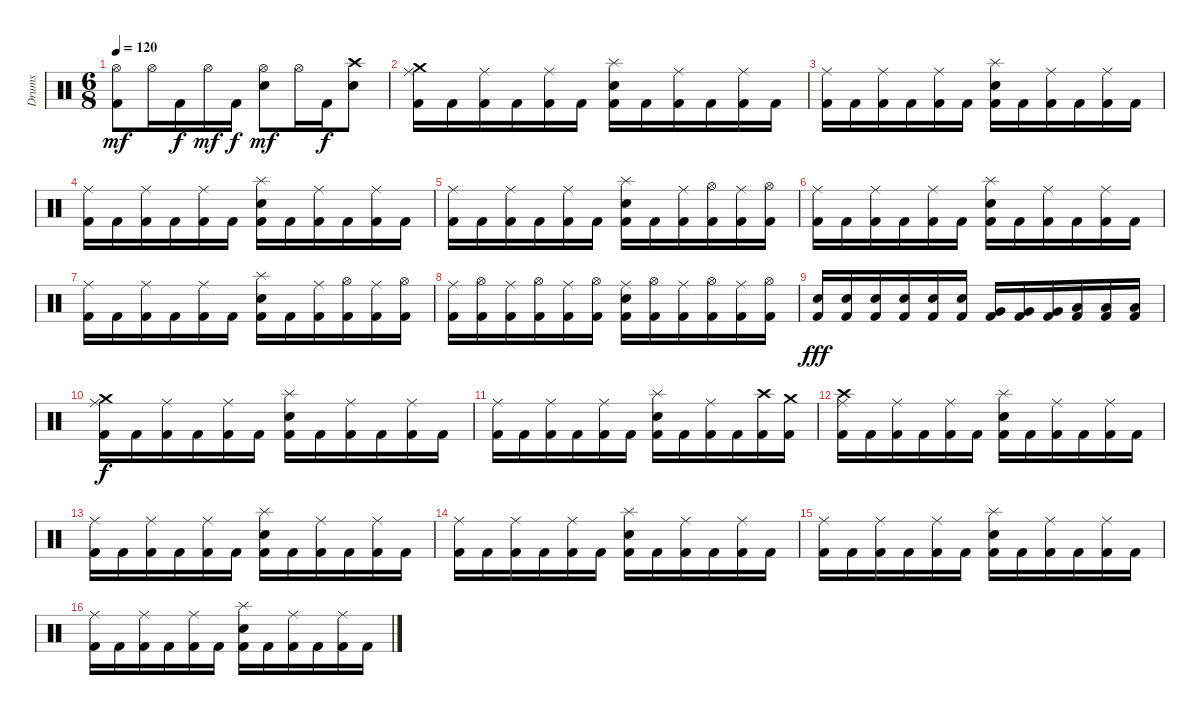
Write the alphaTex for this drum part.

\track ("Drums" "Drums") {instrument percussion}
\staff {score}
\articulation defaults
\ts (6 8)
\tempo 120
\clef neutral
\ks c
("Kick (hit) 2" "Hi-Hat (open)").8{dy mf} "Hi-Hat (open)".16 "Kick (hit) 2".16{dy f} "Hi-Hat (open)".16{dy mf} "Kick (hit) 2".16{dy f} ("Snare (hit) 2" "Hi-Hat (open)").8{dy mf} "Hi-Hat (open)".16 "Kick (hit) 2".16{dy f} ("Snare (hit) 2" "Crash high (hit)").8 |
("Kick (hit) 2" "Ride (middle)" "Crash medium (hit)").16 "Kick (hit) 2".16 ("Kick (hit) 2" "Ride (middle)").16 "Kick (hit) 2".16 ("Kick (hit) 2" "Ride (middle)").16 "Kick (hit) 2".16 ("Kick (hit) 2" "Snare (hit) 2" "Splash (hit)").16 "Kick (hit) 2".16 ("Kick (hit) 2" "Ride (middle)").16 "Kick (hit) 2".16 ("Kick (hit) 2" "Ride (middle)").16 "Kick (hit) 2".16 |
("Kick (hit) 2" "Ride (middle)").16 "Kick (hit) 2".16 ("Kick (hit) 2" "Ride (middle)").16 "Kick (hit) 2".16 ("Kick (hit) 2" "Ride (middle)").16 "Kick (hit) 2".16 ("Kick (hit) 2" "Snare (hit) 2" "Splash (hit)").16 "Kick (hit) 2".16 ("Kick (hit) 2" "Ride (middle)").16 "Kick (hit) 2".16 ("Kick (hit) 2" "Ride (middle)").16 "Kick (hit) 2".16 |
("Kick (hit) 2" "Ride (middle)").16 "Kick (hit) 2".16 ("Kick (hit) 2" "Ride (middle)").16 "Kick (hit) 2".16 ("Kick (hit) 2" "Ride (middle)").16 "Kick (hit) 2".16 ("Kick (hit) 2" "Snare (hit) 2" "Splash (hit)").16 "Kick (hit) 2".16 ("Kick (hit) 2" "Ride (middle)").16 "Kick (hit) 2".16 ("Kick (hit) 2" "Ride (middle)").16 "Kick (hit) 2".16 |
("Kick (hit) 2" "Ride (middle)").16 "Kick (hit) 2".16 ("Kick (hit) 2" "Ride (middle)").16 "Kick (hit) 2".16 ("Kick (hit) 2" "Ride (middle)").16 "Kick (hit) 2".16 ("Kick (hit) 2" "Snare (hit) 2" "Splash (hit)").16 "Kick (hit) 2".16 ("Kick (hit) 2" "Ride (middle)").16 ("Kick (hit) 2" "Hi-Hat (open)").16 ("Kick (hit) 2" "Ride (middle)").16 ("Kick (hit) 2" "Hi-Hat (open)").16 |
("Kick (hit) 2" "Ride (middle)").16 "Kick (hit) 2".16 ("Kick (hit) 2" "Ride (middle)").16 "Kick (hit) 2".16 ("Kick (hit) 2" "Ride (middle)").16 "Kick (hit) 2".16 ("Kick (hit) 2" "Snare (hit) 2" "Splash (hit)").16 "Kick (hit) 2".16 ("Kick (hit) 2" "Ride (middle)").16 "Kick (hit) 2".16 ("Kick (hit) 2" "Ride (middle)").16 "Kick (hit) 2".16 |
("Kick (hit) 2" "Ride (middle)").16 "Kick (hit) 2".16 ("Kick (hit) 2" "Ride (middle)").16 "Kick (hit) 2".16 ("Kick (hit) 2" "Ride (middle)").16 "Kick (hit) 2".16 ("Kick (hit) 2" "Snare (hit) 2" "Splash (hit)").16 "Kick (hit) 2".16 ("Kick (hit) 2" "Ride (middle)").16 ("Kick (hit) 2" "Hi-Hat (open)").16 ("Kick (hit) 2" "Ride (middle)").16 ("Kick (hit) 2" "Hi-Hat (open)").16 |
("Kick (hit) 2" "Ride (middle)").16 ("Kick (hit) 2" "Hi-Hat (open)").16 ("Kick (hit) 2" "Ride (middle)").16 ("Kick (hit) 2" "Hi-Hat (open)").16 ("Kick (hit) 2" "Ride (middle)").16 ("Kick (hit) 2" "Hi-Hat (open)").16 ("Kick (hit) 2" "Snare (hit) 2" "Ride (middle)").16 ("Kick (hit) 2" "Hi-Hat (open)").16 ("Kick (hit) 2" "Ride (middle)").16 ("Kick (hit) 2" "Hi-Hat (open)").16 ("Kick (hit) 2" "Ride (middle)").16 ("Kick (hit) 2" "Hi-Hat (open)").16 |
("Kick (hit) 2" "Snare (hit) 2").16{dy fff} ("Kick (hit) 2" "Snare (hit) 2").16 ("Kick (hit) 2" "Snare (hit) 2").16 ("Kick (hit) 2" "Snare (hit) 2").16 ("Kick (hit) 2" "Snare (hit) 2").16 ("Kick (hit) 2" "Snare (hit) 2").16 ("Kick (hit) 2" "Very Low Tom (hit)").16 ("Kick (hit) 2" "Very Low Tom (hit)").16 ("Kick (hit) 2" "Very Low Tom (hit)").16 ("Kick (hit) 2" "Low Floor Tom (hit)").16 ("Kick (hit) 2" "Low Floor Tom (hit)").16 ("Kick (hit) 2" "Low Floor Tom (hit)").16 |
("Kick (hit) 2" "Ride (middle)" "Crash medium (hit)").16{dy f} "Kick (hit) 2".16 ("Kick (hit) 2" "Ride (middle)").16 "Kick (hit) 2".16 ("Kick (hit) 2" "Ride (middle)").16 "Kick (hit) 2".16 ("Kick (hit) 2" "Snare (hit) 2" "Splash (hit)").16 "Kick (hit) 2".16 ("Kick (hit) 2" "Ride (middle)").16 "Kick (hit) 2".16 ("Kick (hit) 2" "Ride (middle)").16 "Kick (hit) 2".16 |
("Kick (hit) 2" "Ride (middle)").16 "Kick (hit) 2".16 ("Kick (hit) 2" "Ride (middle)").16 "Kick (hit) 2".16 ("Kick (hit) 2" "Ride (middle)").16 "Kick (hit) 2".16 ("Kick (hit) 2" "Snare (hit) 2" "Splash (hit)").16 "Kick (hit) 2".16 ("Kick (hit) 2" "Ride (middle)").16 "Kick (hit) 2".16 ("Kick (hit) 2" "Crash high (hit)").16 ("Kick (hit) 2" "Crash medium (hit)").16 |
("Kick (hit) 2" "Ride (middle)" "Crash high (hit)").16 "Kick (hit) 2".16 ("Kick (hit) 2" "Ride (middle)").16 "Kick (hit) 2".16 ("Kick (hit) 2" "Ride (middle)").16 "Kick (hit) 2".16 ("Kick (hit) 2" "Snare (hit) 2" "Splash (hit)").16 "Kick (hit) 2".16 ("Kick (hit) 2" "Ride (middle)").16 "Kick (hit) 2".16 ("Kick (hit) 2" "Ride (middle)").16 "Kick (hit) 2".16 |
("Kick (hit) 2" "Ride (middle)").16 "Kick (hit) 2".16 ("Kick (hit) 2" "Ride (middle)").16 "Kick (hit) 2".16 ("Kick (hit) 2" "Ride (middle)").16 "Kick (hit) 2".16 ("Kick (hit) 2" "Snare (hit) 2" "Splash (hit)").16 "Kick (hit) 2".16 ("Kick (hit) 2" "Ride (middle)").16 "Kick (hit) 2".16 ("Kick (hit) 2" "Ride (middle)").16 "Kick (hit) 2".16 |
("Kick (hit) 2" "Ride (middle)").16 "Kick (hit) 2".16 ("Kick (hit) 2" "Ride (middle)").16 "Kick (hit) 2".16 ("Kick (hit) 2" "Ride (middle)").16 "Kick (hit) 2".16 ("Kick (hit) 2" "Snare (hit) 2" "Splash (hit)").16 "Kick (hit) 2".16 ("Kick (hit) 2" "Ride (middle)").16 "Kick (hit) 2".16 ("Kick (hit) 2" "Ride (middle)").16 "Kick (hit) 2".16 |
("Kick (hit) 2" "Ride (middle)").16 "Kick (hit) 2".16 ("Kick (hit) 2" "Ride (middle)").16 "Kick (hit) 2".16 ("Kick (hit) 2" "Ride (middle)").16 "Kick (hit) 2".16 ("Kick (hit) 2" "Snare (hit) 2" "Splash (hit)").16 "Kick (hit) 2".16 ("Kick (hit) 2" "Ride (middle)").16 "Kick (hit) 2".16 ("Kick (hit) 2" "Ride (middle)").16 "Kick (hit) 2".16 |
("Kick (hit) 2" "Ride (middle)").16 "Kick (hit) 2".16 ("Kick (hit) 2" "Ride (middle)").16 "Kick (hit) 2".16 ("Kick (hit) 2" "Ride (middle)").16 "Kick (hit) 2".16 ("Kick (hit) 2" "Snare (hit) 2" "Splash (hit)").16 "Kick (hit) 2".16 ("Kick (hit) 2" "Ride (middle)").16 "Kick (hit) 2".16 ("Kick (hit) 2" "Ride (middle)").16 "Kick (hit) 2".16
